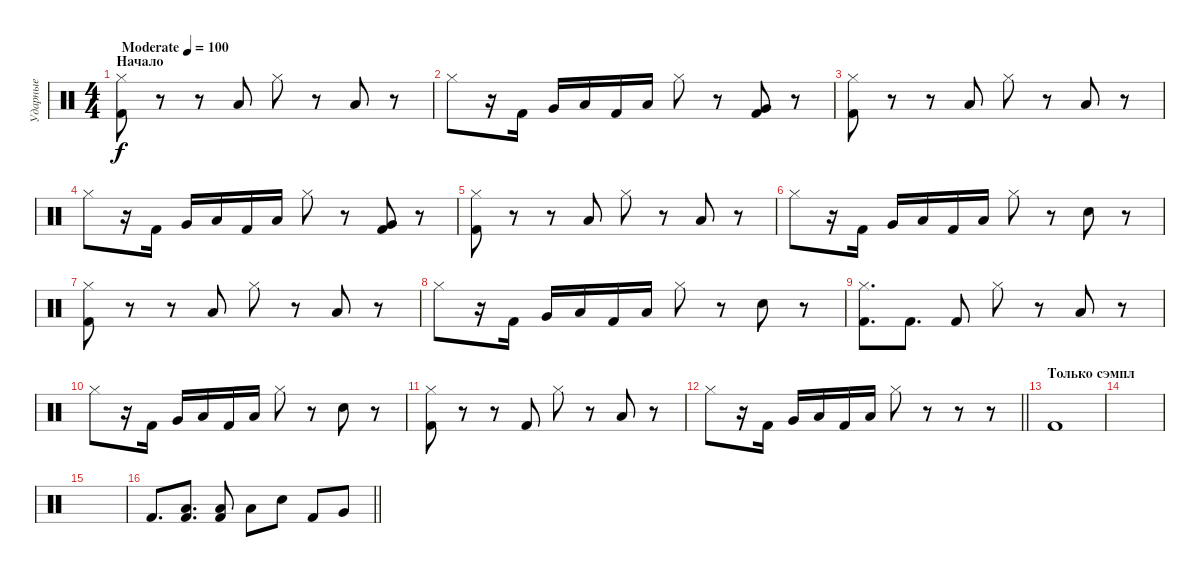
\track ("Ударные" "Ударные") {instrument percussion}
\staff {score}
\articulation defaults
\ts (4 4)
\section ("" "Начало")
\tempo (100 "Moderate")
\clef neutral
\ks c
("Hi-Hat (closed)" "Kick (hit) 2").8{dy f} r.8 r.8 "Low Floor Tom (hit)".8 "Hi-Hat (closed)".8 r.8 "Low Tom (hit)".8 r.8 |
"Hi-Hat (closed)".8 r.16 "Kick (hit) 2".16 "Very Low Tom (hit)".16 "Low Tom (hit)".16 "Kick (hit) 2".16 "Low Floor Tom (hit)".16 "Hi-Hat (closed)".8 r.8 ("Very Low Tom (hit)" "Kick (hit) 2").8 r.8 |
("Hi-Hat (closed)" "Kick (hit) 2").8 r.8 r.8 "Low Floor Tom (hit)".8 "Hi-Hat (closed)".8 r.8 "Low Tom (hit)".8 r.8 |
"Hi-Hat (closed)".8 r.16 "Kick (hit) 2".16 "Very Low Tom (hit)".16 "Low Tom (hit)".16 "Kick (hit) 2".16 "Low Floor Tom (hit)".16 "Hi-Hat (closed)".8 r.8 ("Very Low Tom (hit)" "Kick (hit) 2").8 r.8 |
("Hi-Hat (closed)" "Kick (hit) 2").8 r.8 r.8 "Low Floor Tom (hit)".8 "Hi-Hat (closed)".8 r.8 "Low Tom (hit)".8 r.8 |
"Hi-Hat (closed)".8 r.16 "Kick (hit) 2".16 "Very Low Tom (hit)".16 "Low Tom (hit)".16 "Kick (hit) 2".16 "Low Floor Tom (hit)".16 "Hi-Hat (closed)".8 r.8 "Snare (hit) 2".8 r.8 |
("Hi-Hat (closed)" "Kick (hit) 2").8 r.8 r.8 "Low Floor Tom (hit)".8 "Hi-Hat (closed)".8 r.8 "Low Tom (hit)".8 r.8 |
"Hi-Hat (closed)".8 r.16 "Kick (hit) 2".16 "Very Low Tom (hit)".16 "Low Tom (hit)".16 "Kick (hit) 2".16 "Low Floor Tom (hit)".16 "Hi-Hat (closed)".8 r.8 "Snare (hit) 2".8 r.8 |
("Hi-Hat (closed)" "Kick (hit) 2").8{d} "Kick (hit) 2".8{d} "Kick (hit) 2".8 "Hi-Hat (closed)".8 r.8 "Low Tom (hit)".8 r.8 |
"Hi-Hat (closed)".8 r.16 "Kick (hit) 2".16 "Very Low Tom (hit)".16 "Low Tom (hit)".16 "Kick (hit) 2".16 "Low Floor Tom (hit)".16 "Hi-Hat (closed)".8 r.8 "Snare (hit) 2".8 r.8 |
("Hi-Hat (closed)" "Kick (hit) 2").8 r.8 r.8 "Kick (hit) 2".8 "Hi-Hat (closed)".8 r.8 "Low Tom (hit)".8 r.8 |
\barLineRight lightlight "Hi-Hat (closed)".8
r.16 "Kick (hit) 2".16 "Very Low Tom (hit)".16 "Low Tom (hit)".16 "Kick (hit) 2".16 "Low Floor Tom (hit)".16 "Hi-Hat (closed)".8 r.8 r.8 r.8 |
\section ("" "Только сэмпл")
"Kick (hit) 2".1 |
|
|
\barLineRight lightlight "Kick (hit) 2".8{d}
("Low Tom (hit)" "Kick (hit) 2").8{d} ("Low Floor Tom (hit)" "Kick (hit) 2").8 "Low Floor Tom (hit)".8 "Snare (hit) 2".8 "Kick (hit) 2".8 "Very Low Tom (hit)".8
